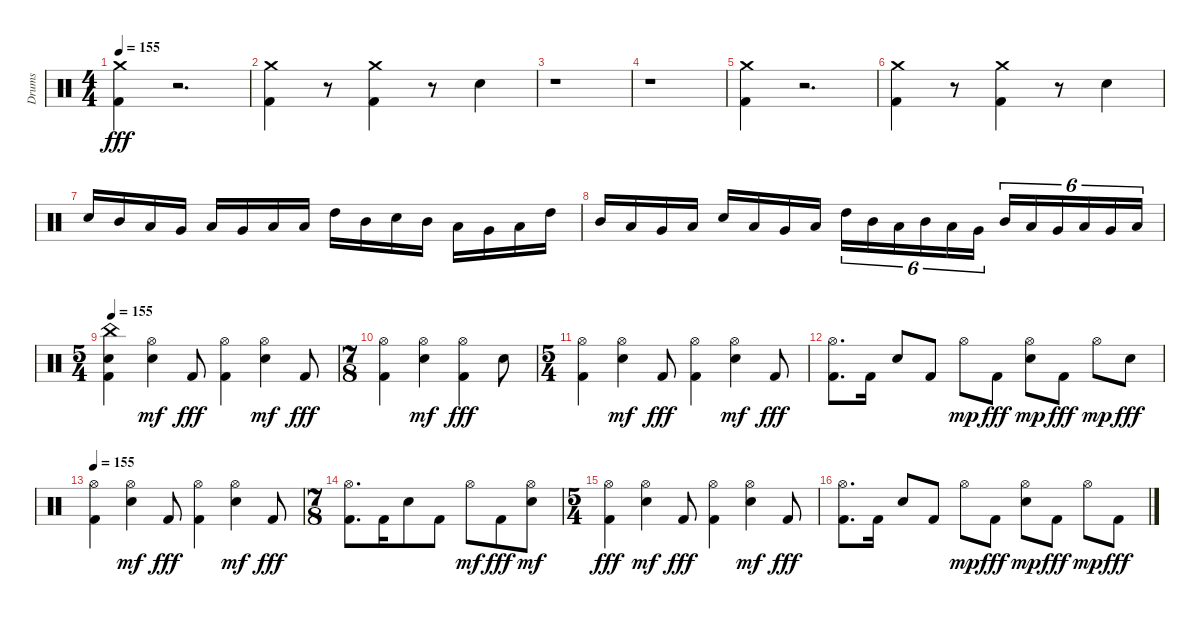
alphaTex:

\track ("Drums" "Drums") {instrument percussion}
\staff {score}
\articulation defaults
\ts (4 4)
\tempo 155
\clef neutral
\ks c
("Crash medium (hit)" "Kick (hit) 2").4{dy fff} r.2{d} |
("Crash medium (hit)" "Kick (hit) 2").4 r.8 ("Crash medium (hit)" "Kick (hit) 2").4 r.8 "Electric Snare (hit)".4 |
r.1 |
r.1 |
("Crash medium (hit)" "Kick (hit) 2").4 r.2{d} |
("Crash medium (hit)" "Kick (hit) 2").4 r.8 ("Crash medium (hit)" "Kick (hit) 2").4 r.8 "Electric Snare (hit)".4 |
"Electric Snare (hit)".16 "Mid Tom (hit)".16 "Low Tom (hit)".16 "Very Low Tom (hit)".16 "Low Tom (hit)".16 "Very Low Tom (hit)".16 "Low Floor Tom (hit)".16 "Low Floor Tom (hit)".16 "High Tom (hit)".16 "Mid Tom (hit)".16 "Electric Snare (hit)".16 "Mid Tom (hit)".16 "Low Tom (hit)".16 "Very Low Tom (hit)".16 "Low Floor Tom (hit)".16 "High Tom (hit)".16 |
"Mid Tom (hit)".16 "Low Tom (hit)".16 "Very Low Tom (hit)".16 "Low Floor Tom (hit)".16 "Electric Snare (hit)".16 "Low Tom (hit)".16 "Very Low Tom (hit)".16 "Low Floor Tom (hit)".16 "High Tom (hit)".16{tu (6 4)} "Mid Tom (hit)".16{tu (6 4)} "Low Tom (hit)".16{tu (6 4)} "Mid Tom (hit)".16{tu (6 4)} "Low Tom (hit)".16{tu (6 4)} "Very Low Tom (hit)".16{tu (6 4)} "Mid Tom (hit)".16{tu (6 4)} "Low Tom (hit)".16{tu (6 4)} "Very Low Tom (hit)".16{tu (6 4)} "Low Floor Tom (hit)".16{tu (6 4)} "Very Low Tom (hit)".16{tu (6 4)} "Low Floor Tom (hit)".16{tu (6 4)} |
\ts (5 4)
\tempo 155
("Electric Snare (hit)" "China (hit)" "Kick (hit) 2").4 ("Electric Snare (hit)" "Hi-Hat (open)").4{dy mf} "Kick (hit) 2".8{dy fff} ("Hi-Hat (open)" "Kick (hit) 2").4 ("Electric Snare (hit)" "Hi-Hat (open)").4{dy mf} "Kick (hit) 2".8{dy fff} |
\ts (7 8)
("Hi-Hat (open)" "Kick (hit) 2").4 ("Electric Snare (hit)" "Hi-Hat (open)").4{dy mf} ("Hi-Hat (open)" "Kick (hit) 2").4{dy fff} "Electric Snare (hit)".8 |
\ts (5 4)
("Hi-Hat (open)" "Kick (hit) 2").4 ("Electric Snare (hit)" "Hi-Hat (open)").4{dy mf} "Kick (hit) 2".8{dy fff} ("Hi-Hat (open)" "Kick (hit) 2").4 ("Electric Snare (hit)" "Hi-Hat (open)").4{dy mf} "Kick (hit) 2".8{dy fff} |
("Hi-Hat (open)" "Kick (hit) 2").8{d} "Kick (hit) 2".16 "Electric Snare (hit)".8 "Kick (hit) 2".8 "Hi-Hat (open)".8{dy mp} "Kick (hit) 2".8{dy fff} ("Electric Snare (hit)" "Hi-Hat (open)").8{dy mp} "Kick (hit) 2".8{dy fff} "Hi-Hat (open)".8{dy mp} "Electric Snare (hit)".8{dy fff} |
\tempo 155
("Hi-Hat (open)" "Kick (hit) 2").4 ("Electric Snare (hit)" "Hi-Hat (open)").4{dy mf} "Kick (hit) 2".8{dy fff} ("Hi-Hat (open)" "Kick (hit) 2").4 ("Electric Snare (hit)" "Hi-Hat (open)").4{dy mf} "Kick (hit) 2".8{dy fff} |
\ts (7 8)
("Hi-Hat (open)" "Kick (hit) 2").8{d} "Kick (hit) 2".16 "Electric Snare (hit)".8 "Kick (hit) 2".8 "Hi-Hat (open)".8{dy mf} "Kick (hit) 2".8{dy fff} ("Electric Snare (hit)" "Hi-Hat (open)").8{dy mf} |
\ts (5 4)
("Hi-Hat (open)" "Kick (hit) 2").4{dy fff} ("Electric Snare (hit)" "Hi-Hat (open)").4{dy mf} "Kick (hit) 2".8{dy fff} ("Hi-Hat (open)" "Kick (hit) 2").4 ("Electric Snare (hit)" "Hi-Hat (open)").4{dy mf} "Kick (hit) 2".8{dy fff} |
("Hi-Hat (open)" "Kick (hit) 2").8{d} "Kick (hit) 2".16 "Electric Snare (hit)".8 "Kick (hit) 2".8 "Hi-Hat (open)".8{dy mp} "Kick (hit) 2".8{dy fff} ("Electric Snare (hit)" "Hi-Hat (open)").8{dy mp} "Kick (hit) 2".8{dy fff} "Hi-Hat (open)".8{dy mp} "Kick (hit) 2".8{dy fff}
